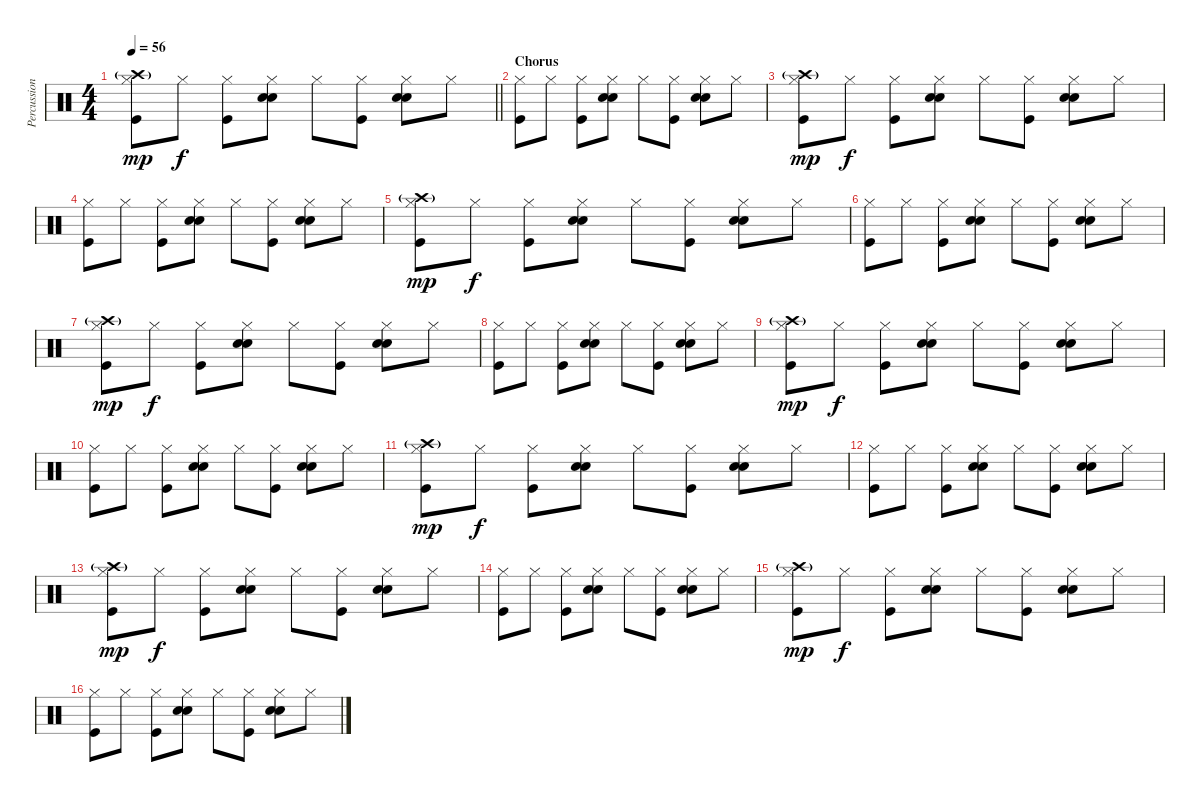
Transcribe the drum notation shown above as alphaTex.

\track ("Percussion" "Percussion") {instrument percussion}
\staff {score}
\articulation defaults
\ts (4 4)
\tempo 56
\clef neutral
\barLineRight lightlight
\ks c
("Hi-Hat (closed)" "Crash high (hit)"{g} "Kick (hit)").8{dy mp} "Hi-Hat (closed)".8{dy f} ("Hi-Hat (closed)" "Kick (hit)").8 ("Hi-Hat (closed)" "Snare (hit) 2" "Snare (hit) 2").8 "Hi-Hat (closed)".8 ("Hi-Hat (closed)" "Kick (hit)").8 ("Hi-Hat (closed)" "Snare (hit) 2" "Snare (hit) 2").8 "Hi-Hat (closed)".8 |
\section ("" "Chorus")
("Hi-Hat (closed)" "Kick (hit)").8 "Hi-Hat (closed)".8 ("Hi-Hat (closed)" "Kick (hit)").8 ("Hi-Hat (closed)" "Snare (hit) 2" "Snare (hit) 2").8 "Hi-Hat (closed)".8 ("Hi-Hat (closed)" "Kick (hit)").8 ("Hi-Hat (closed)" "Snare (hit) 2" "Snare (hit) 2").8 "Hi-Hat (closed)".8 |
("Hi-Hat (closed)" "Crash high (hit)"{g} "Kick (hit)").8{dy mp} "Hi-Hat (closed)".8{dy f} ("Hi-Hat (closed)" "Kick (hit)").8 ("Hi-Hat (closed)" "Snare (hit) 2" "Snare (hit) 2").8 "Hi-Hat (closed)".8 ("Hi-Hat (closed)" "Kick (hit)").8 ("Hi-Hat (closed)" "Snare (hit) 2" "Snare (hit) 2").8 "Hi-Hat (closed)".8 |
("Hi-Hat (closed)" "Kick (hit)").8 "Hi-Hat (closed)".8 ("Hi-Hat (closed)" "Kick (hit)").8 ("Hi-Hat (closed)" "Snare (hit) 2" "Snare (hit) 2").8 "Hi-Hat (closed)".8 ("Hi-Hat (closed)" "Kick (hit)").8 ("Hi-Hat (closed)" "Snare (hit) 2" "Snare (hit) 2").8 "Hi-Hat (closed)".8 |
("Hi-Hat (closed)" "Crash high (hit)"{g} "Kick (hit)").8{dy mp} "Hi-Hat (closed)".8{dy f} ("Hi-Hat (closed)" "Kick (hit)").8 ("Hi-Hat (closed)" "Snare (hit) 2" "Snare (hit) 2").8 "Hi-Hat (closed)".8 ("Hi-Hat (closed)" "Kick (hit)").8 ("Hi-Hat (closed)" "Snare (hit) 2" "Snare (hit) 2").8 "Hi-Hat (closed)".8 |
("Hi-Hat (closed)" "Kick (hit)").8 "Hi-Hat (closed)".8 ("Hi-Hat (closed)" "Kick (hit)").8 ("Hi-Hat (closed)" "Snare (hit) 2" "Snare (hit) 2").8 "Hi-Hat (closed)".8 ("Hi-Hat (closed)" "Kick (hit)").8 ("Hi-Hat (closed)" "Snare (hit) 2" "Snare (hit) 2").8 "Hi-Hat (closed)".8 |
("Hi-Hat (closed)" "Crash high (hit)"{g} "Kick (hit)").8{dy mp} "Hi-Hat (closed)".8{dy f} ("Hi-Hat (closed)" "Kick (hit)").8 ("Hi-Hat (closed)" "Snare (hit) 2" "Snare (hit) 2").8 "Hi-Hat (closed)".8 ("Hi-Hat (closed)" "Kick (hit)").8 ("Hi-Hat (closed)" "Snare (hit) 2" "Snare (hit) 2").8 "Hi-Hat (closed)".8 |
("Hi-Hat (closed)" "Kick (hit)").8 "Hi-Hat (closed)".8 ("Hi-Hat (closed)" "Kick (hit)").8 ("Hi-Hat (closed)" "Snare (hit) 2" "Snare (hit) 2").8 "Hi-Hat (closed)".8 ("Hi-Hat (closed)" "Kick (hit)").8 ("Hi-Hat (closed)" "Snare (hit) 2" "Snare (hit) 2").8 "Hi-Hat (closed)".8 |
("Hi-Hat (closed)" "Crash high (hit)"{g} "Kick (hit)").8{dy mp} "Hi-Hat (closed)".8{dy f} ("Hi-Hat (closed)" "Kick (hit)").8 ("Hi-Hat (closed)" "Snare (hit) 2" "Snare (hit) 2").8 "Hi-Hat (closed)".8 ("Hi-Hat (closed)" "Kick (hit)").8 ("Hi-Hat (closed)" "Snare (hit) 2" "Snare (hit) 2").8 "Hi-Hat (closed)".8 |
("Hi-Hat (closed)" "Kick (hit)").8 "Hi-Hat (closed)".8 ("Hi-Hat (closed)" "Kick (hit)").8 ("Hi-Hat (closed)" "Snare (hit) 2" "Snare (hit) 2").8 "Hi-Hat (closed)".8 ("Hi-Hat (closed)" "Kick (hit)").8 ("Hi-Hat (closed)" "Snare (hit) 2" "Snare (hit) 2").8 "Hi-Hat (closed)".8 |
("Hi-Hat (closed)" "Crash high (hit)"{g} "Kick (hit)").8{dy mp} "Hi-Hat (closed)".8{dy f} ("Hi-Hat (closed)" "Kick (hit)").8 ("Hi-Hat (closed)" "Snare (hit) 2" "Snare (hit) 2").8 "Hi-Hat (closed)".8 ("Hi-Hat (closed)" "Kick (hit)").8 ("Hi-Hat (closed)" "Snare (hit) 2" "Snare (hit) 2").8 "Hi-Hat (closed)".8 |
("Hi-Hat (closed)" "Kick (hit)").8 "Hi-Hat (closed)".8 ("Hi-Hat (closed)" "Kick (hit)").8 ("Hi-Hat (closed)" "Snare (hit) 2" "Snare (hit) 2").8 "Hi-Hat (closed)".8 ("Hi-Hat (closed)" "Kick (hit)").8 ("Hi-Hat (closed)" "Snare (hit) 2" "Snare (hit) 2").8 "Hi-Hat (closed)".8 |
("Hi-Hat (closed)" "Crash high (hit)"{g} "Kick (hit)").8{dy mp} "Hi-Hat (closed)".8{dy f} ("Hi-Hat (closed)" "Kick (hit)").8 ("Hi-Hat (closed)" "Snare (hit) 2" "Snare (hit) 2").8 "Hi-Hat (closed)".8 ("Hi-Hat (closed)" "Kick (hit)").8 ("Hi-Hat (closed)" "Snare (hit) 2" "Snare (hit) 2").8 "Hi-Hat (closed)".8 |
("Hi-Hat (closed)" "Kick (hit)").8 "Hi-Hat (closed)".8 ("Hi-Hat (closed)" "Kick (hit)").8 ("Hi-Hat (closed)" "Snare (hit) 2" "Snare (hit) 2").8 "Hi-Hat (closed)".8 ("Hi-Hat (closed)" "Kick (hit)").8 ("Hi-Hat (closed)" "Snare (hit) 2" "Snare (hit) 2").8 "Hi-Hat (closed)".8 |
("Hi-Hat (closed)" "Crash high (hit)"{g} "Kick (hit)").8{dy mp} "Hi-Hat (closed)".8{dy f} ("Hi-Hat (closed)" "Kick (hit)").8 ("Hi-Hat (closed)" "Snare (hit) 2" "Snare (hit) 2").8 "Hi-Hat (closed)".8 ("Hi-Hat (closed)" "Kick (hit)").8 ("Hi-Hat (closed)" "Snare (hit) 2" "Snare (hit) 2").8 "Hi-Hat (closed)".8 |
("Hi-Hat (closed)" "Kick (hit)").8 "Hi-Hat (closed)".8 ("Hi-Hat (closed)" "Kick (hit)").8 ("Hi-Hat (closed)" "Snare (hit) 2" "Snare (hit) 2").8 "Hi-Hat (closed)".8 ("Hi-Hat (closed)" "Kick (hit)").8 ("Hi-Hat (closed)" "Snare (hit) 2" "Snare (hit) 2").8 "Hi-Hat (closed)".8
